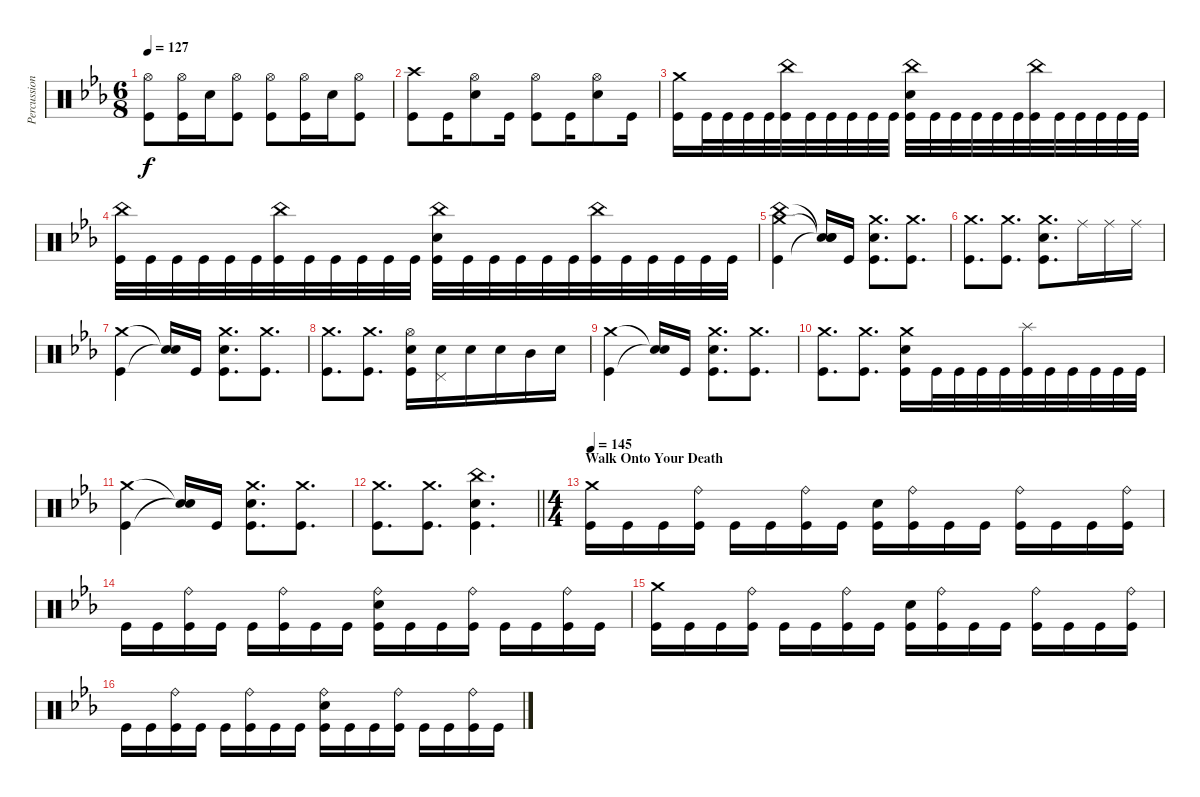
\track ("Percussion" "Percussion") {instrument percussion}
\staff {score}
\articulation defaults
\ts (6 8)
\tempo 127
\clef neutral
\ks eb
("Hi-Hat (open)" "Kick (hit)").8{dy f} ("Hi-Hat (open)" "Kick (hit)").16 "Electric Snare (hit)".16 ("Hi-Hat (open)" "Kick (hit)").8 ("Hi-Hat (open)" "Kick (hit)").8 ("Hi-Hat (open)" "Kick (hit)").16 "Electric Snare (hit)".16 ("Hi-Hat (open)" "Kick (hit)").8 |
("Crash high (hit)" "Kick (hit)").8 "Kick (hit)".16 ("Hi-Hat (open)" "Electric Snare (hit)").8 "Kick (hit)".16 ("Hi-Hat (open)" "Kick (hit)").8 "Kick (hit)".16 ("Hi-Hat (open)" "Electric Snare (hit)").8 "Kick (hit)".16 |
("Crash medium (hit)" "Kick (hit)").16 "Kick (hit)".32 "Kick (hit)".32 "Kick (hit)".32 "Kick (hit)".32 ("China (hit)" "Kick (hit)").32 "Kick (hit)".32 "Kick (hit)".32 "Kick (hit)".32 "Kick (hit)".32 "Kick (hit)".32 ("China (hit)" "Electric Snare (hit)" "Kick (hit)").32 "Kick (hit)".32 "Kick (hit)".32 "Kick (hit)".32 "Kick (hit)".32 "Kick (hit)".32 ("China (hit)" "Kick (hit)").32 "Kick (hit)".32 "Kick (hit)".32 "Kick (hit)".32 "Kick (hit)".32 "Kick (hit)".32 |
("China (hit)" "Kick (hit)").32 "Kick (hit)".32 "Kick (hit)".32 "Kick (hit)".32 "Kick (hit)".32 "Kick (hit)".32 ("China (hit)" "Kick (hit)").32 "Kick (hit)".32 "Kick (hit)".32 "Kick (hit)".32 "Kick (hit)".32 "Kick (hit)".32 ("China (hit)" "Electric Snare (hit)" "Kick (hit)").32 "Kick (hit)".32 "Kick (hit)".32 "Kick (hit)".32 "Kick (hit)".32 "Kick (hit)".32 ("China (hit)" "Kick (hit)").32 "Kick (hit)".32 "Kick (hit)".32 "Kick (hit)".32 "Kick (hit)".32 "Kick (hit)".32 |
("Crash medium (hit)" "China (hit)" "Kick (hit)").4 ("Snare (hit)"{t} "Snare (hit)"{t} "Snare (hit)"{t}).16 "Kick (hit)".16 ("Crash medium (hit)" "Electric Snare (hit)" "Kick (hit)").8{d} ("Crash medium (hit)" "Kick (hit)").8{d} |
("Crash medium (hit)" "Kick (hit)").8{d} ("Crash medium (hit)" "Kick (hit)").8{d} ("Crash medium (hit)" "Electric Snare (hit)" "Kick (hit)").8{d} "Ride (middle)".16 "Ride (middle)".16 "Ride (middle)".16 |
("Crash medium (hit)" "Kick (hit)").4 ("Snare (hit)"{t} "Snare (hit)"{t}).16 "Kick (hit)".16 ("Crash medium (hit)" "Electric Snare (hit)" "Kick (hit)").8{d} ("Crash medium (hit)" "Kick (hit)").8{d} |
("Crash medium (hit)" "Kick (hit)").8{d} ("Crash medium (hit)" "Kick (hit)").8{d} ("Hi-Hat (open)" "Electric Snare (hit)" "Kick (hit)").16 ("Pedal Hi-Hat (hit)" "Electric Snare (hit)").16 "Electric Snare (hit)".16 "Electric Snare (hit)".16 "Mid Tom (hit)".16 "Electric Snare (hit)".16 |
("Crash medium (hit)" "Kick (hit)").4 ("Snare (hit)"{t} "Snare (hit)"{t}).16 "Kick (hit)".16 ("Crash medium (hit)" "Electric Snare (hit)" "Kick (hit)").8{d} ("Crash medium (hit)" "Kick (hit)").8{d} |
("Crash medium (hit)" "Kick (hit)").8{d} ("Crash medium (hit)" "Kick (hit)").8{d} ("Crash medium (hit)" "Electric Snare (hit)" "Kick (hit)").16 "Kick (hit)".32 "Kick (hit)".32 "Kick (hit)".32 "Kick (hit)".32 ("Splash (hit)" "Kick (hit)").32 "Kick (hit)".32 "Kick (hit)".32 "Kick (hit)".32 "Kick (hit)".32 "Kick (hit)".32 |
("Crash medium (hit)" "Kick (hit)").4 ("Snare (hit)"{t} "Snare (hit)"{t}).16 "Kick (hit)".16 ("Crash medium (hit)" "Electric Snare (hit)" "Kick (hit)").8{d} ("Crash medium (hit)" "Kick (hit)").8{d} |
\barLineRight lightlight
("Crash medium (hit)" "Kick (hit)").8{d} ("Crash medium (hit)" "Kick (hit)").8{d} ("China (hit)" "Electric Snare (hit)" "Kick (hit)").4{d} |
\ts (4 4)
\section ("" "Walk Onto Your Death")
\tempo 145
("Crash medium (hit)" "Kick (hit)").16 "Kick (hit)".16 "Kick (hit)".16 ("Ride (bell)" "Kick (hit)").16 "Kick (hit)".16 "Kick (hit)".16 ("Ride (bell)" "Kick (hit)").16 "Kick (hit)".16 ("Electric Snare (hit)" "Kick (hit)").16 ("Ride (bell)" "Kick (hit)").16 "Kick (hit)".16 "Kick (hit)".16 ("Ride (bell)" "Kick (hit)").16 "Kick (hit)".16 "Kick (hit)".16 ("Ride (bell)" "Kick (hit)").16 |
"Kick (hit)".16 "Kick (hit)".16 ("Ride (bell)" "Kick (hit)").16 "Kick (hit)".16 "Kick (hit)".16 ("Ride (bell)" "Kick (hit)").16 "Kick (hit)".16 "Kick (hit)".16 ("Ride (bell)" "Electric Snare (hit)" "Kick (hit)").16 "Kick (hit)".16 "Kick (hit)".16 ("Ride (bell)" "Kick (hit)").16 "Kick (hit)".16 "Kick (hit)".16 ("Ride (bell)" "Kick (hit)").16 "Kick (hit)".16 |
("Crash medium (hit)" "Kick (hit)").16 "Kick (hit)".16 "Kick (hit)".16 ("Ride (bell)" "Kick (hit)").16 "Kick (hit)".16 "Kick (hit)".16 ("Ride (bell)" "Kick (hit)").16 "Kick (hit)".16 ("Electric Snare (hit)" "Kick (hit)").16 ("Ride (bell)" "Kick (hit)").16 "Kick (hit)".16 "Kick (hit)".16 ("Ride (bell)" "Kick (hit)").16 "Kick (hit)".16 "Kick (hit)".16 ("Ride (bell)" "Kick (hit)").16 |
"Kick (hit)".16 "Kick (hit)".16 ("Ride (bell)" "Kick (hit)").16 "Kick (hit)".16 "Kick (hit)".16 ("Ride (bell)" "Kick (hit)").16 "Kick (hit)".16 "Kick (hit)".16 ("Ride (bell)" "Electric Snare (hit)" "Kick (hit)").16 "Kick (hit)".16 "Kick (hit)".16 ("Ride (bell)" "Kick (hit)").16 "Kick (hit)".16 "Kick (hit)".16 ("Ride (bell)" "Kick (hit)").16 "Kick (hit)".16
